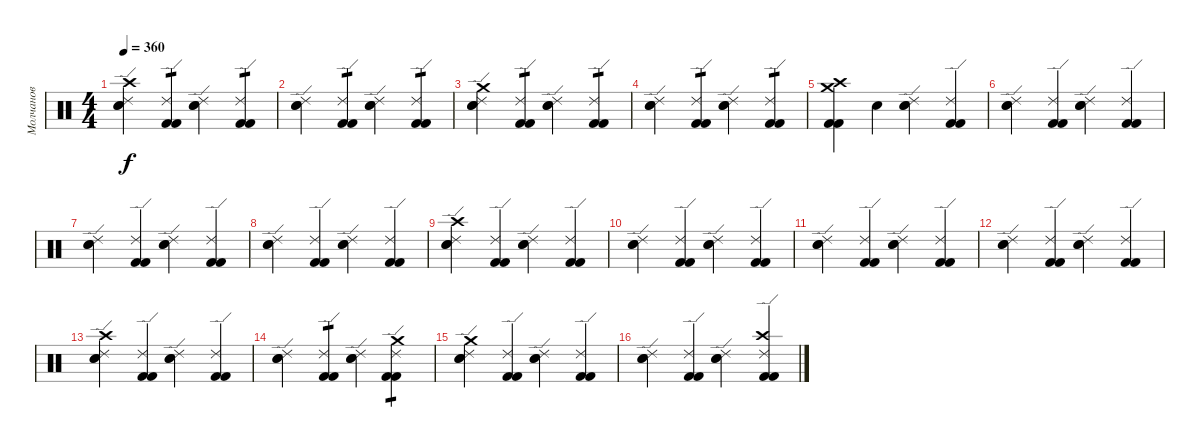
\track ("Молчанов" "Молчанов") {instrument percussion}
\staff {score}
\articulation defaults
\ts (4 4)
\tempo 360
\clef neutral
\ks c
("Ride (edge) 2" "Electric Snare (hit)" "Electric Snare (hit)" "Crash high (hit)").4{dy f} ("Ride (edge) 2" "Kick (hit) 2" "Kick (hit) 2").4{tp 1} ("Ride (edge) 2" "Electric Snare (hit)" "Electric Snare (hit)").4 ("Ride (edge) 2" "Kick (hit) 2" "Kick (hit) 2").4{tp 1} |
("Ride (edge) 2" "Electric Snare (hit)" "Electric Snare (hit)").4 ("Ride (edge) 2" "Kick (hit) 2" "Kick (hit) 2").4{tp 1} ("Ride (edge) 2" "Electric Snare (hit)" "Electric Snare (hit)").4 ("Ride (edge) 2" "Kick (hit) 2" "Kick (hit) 2").4{tp 1} |
("Ride (edge) 2" "Electric Snare (hit)" "Electric Snare (hit)" "Crash medium (hit)").4 ("Ride (edge) 2" "Kick (hit) 2" "Kick (hit) 2").4{tp 1} ("Ride (edge) 2" "Electric Snare (hit)" "Electric Snare (hit)").4 ("Ride (edge) 2" "Kick (hit) 2" "Kick (hit) 2").4{tp 1} |
("Ride (edge) 2" "Electric Snare (hit)" "Electric Snare (hit)").4 ("Ride (edge) 2" "Kick (hit) 2" "Kick (hit) 2").4{tp 1} ("Ride (edge) 2" "Electric Snare (hit)" "Electric Snare (hit)").4 ("Ride (edge) 2" "Kick (hit) 2" "Kick (hit) 2").4{tp 1} |
("Kick (hit) 2" "Kick (hit) 2" "Crash high (hit)" "Crash medium (hit)").4 "Snare (hit)"{x}.4 ("Ride (edge) 2" "Electric Snare (hit)" "Electric Snare (hit)").4 ("Ride (edge) 2" "Kick (hit) 2" "Kick (hit) 2").4 |
("Ride (edge) 2" "Electric Snare (hit)" "Electric Snare (hit)").4 ("Ride (edge) 2" "Kick (hit) 2" "Kick (hit) 2").4 ("Ride (edge) 2" "Electric Snare (hit)" "Electric Snare (hit)").4 ("Ride (edge) 2" "Kick (hit) 2" "Kick (hit) 2").4 |
("Ride (edge) 2" "Electric Snare (hit)" "Electric Snare (hit)").4 ("Ride (edge) 2" "Kick (hit) 2" "Kick (hit) 2").4 ("Ride (edge) 2" "Electric Snare (hit)" "Electric Snare (hit)").4 ("Ride (edge) 2" "Kick (hit) 2" "Kick (hit) 2").4 |
("Ride (edge) 2" "Electric Snare (hit)" "Electric Snare (hit)").4 ("Ride (edge) 2" "Kick (hit) 2" "Kick (hit) 2").4 ("Ride (edge) 2" "Electric Snare (hit)" "Electric Snare (hit)").4 ("Ride (edge) 2" "Kick (hit) 2" "Kick (hit) 2").4 |
("Ride (edge) 2" "Electric Snare (hit)" "Electric Snare (hit)" "Crash high (hit)").4 ("Ride (edge) 2" "Kick (hit) 2" "Kick (hit) 2").4 ("Ride (edge) 2" "Electric Snare (hit)" "Electric Snare (hit)").4 ("Ride (edge) 2" "Kick (hit) 2" "Kick (hit) 2").4 |
("Ride (edge) 2" "Electric Snare (hit)" "Electric Snare (hit)").4 ("Ride (edge) 2" "Kick (hit) 2" "Kick (hit) 2").4 ("Ride (edge) 2" "Electric Snare (hit)" "Electric Snare (hit)").4 ("Ride (edge) 2" "Kick (hit) 2" "Kick (hit) 2").4 |
("Ride (edge) 2" "Electric Snare (hit)" "Electric Snare (hit)").4 ("Ride (edge) 2" "Kick (hit) 2" "Kick (hit) 2").4 ("Ride (edge) 2" "Electric Snare (hit)" "Electric Snare (hit)").4 ("Ride (edge) 2" "Kick (hit) 2" "Kick (hit) 2").4 |
("Ride (edge) 2" "Electric Snare (hit)" "Electric Snare (hit)").4 ("Ride (edge) 2" "Kick (hit) 2" "Kick (hit) 2").4 ("Ride (edge) 2" "Electric Snare (hit)" "Electric Snare (hit)").4 ("Ride (edge) 2" "Kick (hit) 2" "Kick (hit) 2").4 |
("Ride (edge) 2" "Electric Snare (hit)" "Electric Snare (hit)" "Crash high (hit)").4 ("Ride (edge) 2" "Kick (hit) 2" "Kick (hit) 2").4 ("Ride (edge) 2" "Electric Snare (hit)" "Electric Snare (hit)").4 ("Ride (edge) 2" "Kick (hit) 2" "Kick (hit) 2").4 |
("Ride (edge) 2" "Electric Snare (hit)" "Electric Snare (hit)").4 ("Ride (edge) 2" "Kick (hit) 2" "Kick (hit) 2").4{tp 1} ("Ride (edge) 2" "Electric Snare (hit)" "Electric Snare (hit)").4 ("Ride (edge) 2" "Kick (hit) 2" "Kick (hit) 2" "Crash medium (hit)").4{tp 1} |
("Ride (edge) 2" "Electric Snare (hit)" "Electric Snare (hit)" "Crash medium (hit)").4 ("Ride (edge) 2" "Kick (hit) 2" "Kick (hit) 2").4 ("Ride (edge) 2" "Electric Snare (hit)" "Electric Snare (hit)").4 ("Ride (edge) 2" "Kick (hit) 2" "Kick (hit) 2").4 |
("Ride (edge) 2" "Electric Snare (hit)" "Electric Snare (hit)").4 ("Ride (edge) 2" "Kick (hit) 2" "Kick (hit) 2").4 ("Ride (edge) 2" "Electric Snare (hit)" "Electric Snare (hit)").4 ("Ride (edge) 2" "Kick (hit) 2" "Kick (hit) 2" "Crash high (hit)").4
